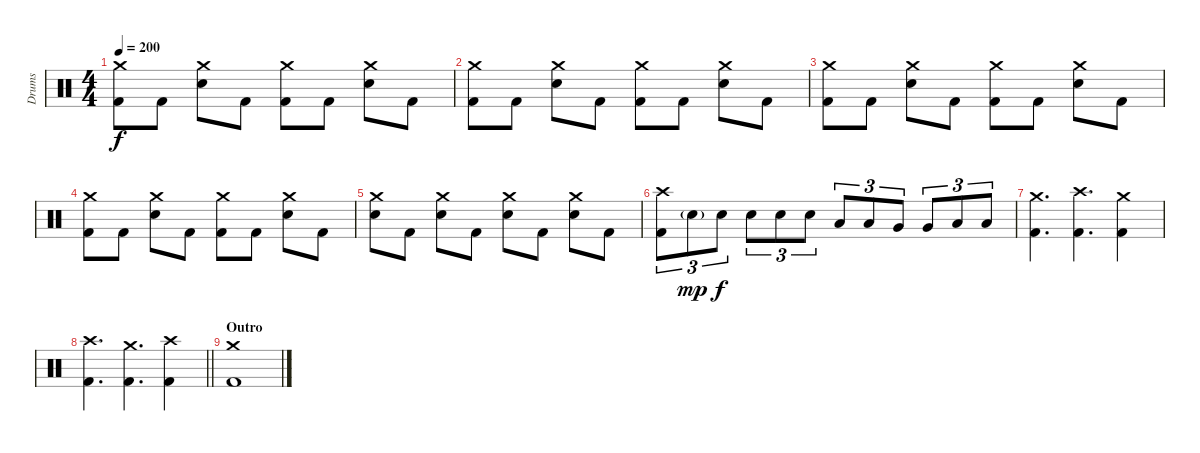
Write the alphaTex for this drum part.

\track ("Drums" "Drums") {instrument percussion}
\staff {score}
\articulation defaults
\ts (4 4)
\tempo 200
\clef neutral
\ks c
("Crash medium (hit)" "Kick (hit) 2").8{dy f} "Kick (hit) 2".8 ("Crash medium (hit)" "Electric Snare (hit)").8 "Kick (hit) 2".8 ("Crash medium (hit)" "Kick (hit) 2").8 "Kick (hit) 2".8 ("Crash medium (hit)" "Electric Snare (hit)").8 "Kick (hit) 2".8 |
("Crash medium (hit)" "Kick (hit) 2").8 "Kick (hit) 2".8 ("Crash medium (hit)" "Electric Snare (hit)").8 "Kick (hit) 2".8 ("Crash medium (hit)" "Kick (hit) 2").8 "Kick (hit) 2".8 ("Crash medium (hit)" "Electric Snare (hit)").8 "Kick (hit) 2".8 |
("Crash medium (hit)" "Kick (hit) 2").8 "Kick (hit) 2".8 ("Crash medium (hit)" "Electric Snare (hit)").8 "Kick (hit) 2".8 ("Crash medium (hit)" "Kick (hit) 2").8 "Kick (hit) 2".8 ("Crash medium (hit)" "Electric Snare (hit)").8 "Kick (hit) 2".8 |
("Crash medium (hit)" "Kick (hit) 2").8 "Kick (hit) 2".8 ("Crash medium (hit)" "Electric Snare (hit)").8 "Kick (hit) 2".8 ("Crash medium (hit)" "Kick (hit) 2").8 "Kick (hit) 2".8 ("Crash medium (hit)" "Electric Snare (hit)").8 "Kick (hit) 2".8 |
("Crash medium (hit)" "Electric Snare (hit)").8 "Kick (hit) 2".8 ("Crash medium (hit)" "Electric Snare (hit)").8 "Kick (hit) 2".8 ("Crash medium (hit)" "Electric Snare (hit)").8 "Kick (hit) 2".8 ("Crash medium (hit)" "Electric Snare (hit)").8 "Kick (hit) 2".8 |
("Crash high (hit)" "Kick (hit) 2").8{tu (3 2)} "Electric Snare (hit)"{g}.8{tu (3 2) dy mp} "Electric Snare (hit)".8{tu (3 2) dy f} "Electric Snare (hit)".8{tu (3 2)} "Electric Snare (hit)".8{tu (3 2)} "Electric Snare (hit)".8{tu (3 2)} "Low Tom (hit)".8{tu (3 2)} "Low Tom (hit)".8{tu (3 2)} "Very Low Tom (hit)".8{tu (3 2)} "Very Low Tom (hit)".8{tu (3 2)} "Low Floor Tom (hit)".8{tu (3 2)} "Low Floor Tom (hit)".8{tu (3 2)} |
("Crash medium (hit)" "Kick (hit) 2").4{d} ("Crash high (hit)" "Kick (hit) 2").4{d} ("Crash medium (hit)" "Kick (hit) 2").4 |
\barLineRight lightlight
("Crash high (hit)" "Kick (hit) 2").4{d} ("Crash medium (hit)" "Kick (hit) 2").4{d} ("Crash high (hit)" "Kick (hit) 2").4 |
\section ("" "Outro")
("Crash medium (hit)" "Kick (hit) 2").1
